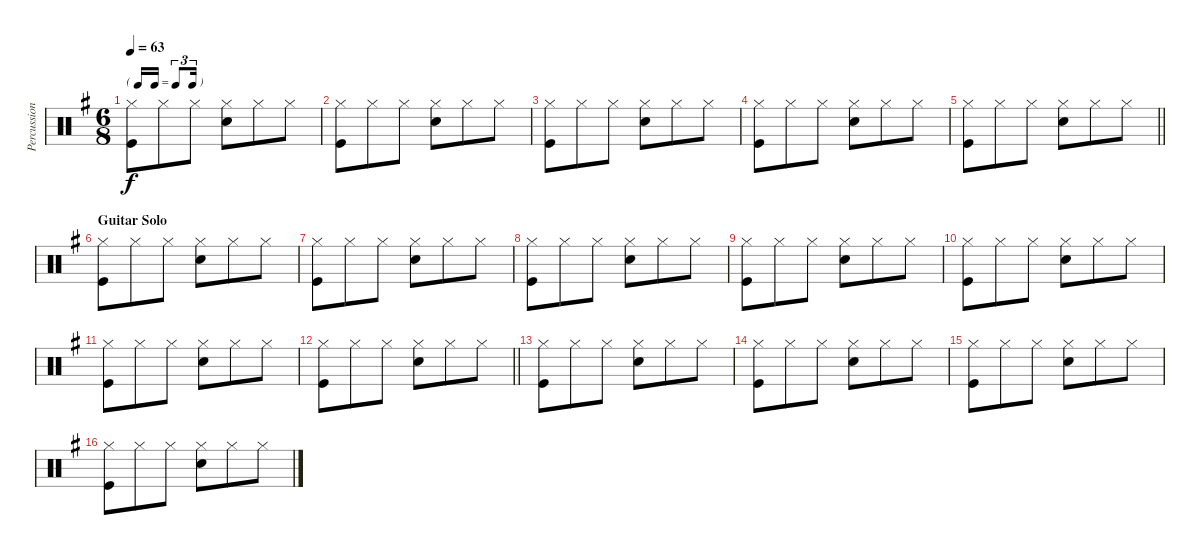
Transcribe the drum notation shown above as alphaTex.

\track ("Percussion" "Percussion") {instrument percussion}
\staff {score}
\articulation defaults
\ts (6 8)
\tf triplet16th
\tempo 63
\clef neutral
\ks g
("Hi-Hat (closed)" "Kick (hit)").8{dy f} "Hi-Hat (closed)".8 "Hi-Hat (closed)".8 ("Hi-Hat (closed)" "Electric Snare (hit)").8 "Hi-Hat (closed)".8 "Hi-Hat (closed)".8 |
("Hi-Hat (closed)" "Kick (hit)").8 "Hi-Hat (closed)".8 "Hi-Hat (closed)".8 ("Hi-Hat (closed)" "Electric Snare (hit)").8 "Hi-Hat (closed)".8 "Hi-Hat (closed)".8 |
("Hi-Hat (closed)" "Kick (hit)").8 "Hi-Hat (closed)".8 "Hi-Hat (closed)".8 ("Hi-Hat (closed)" "Electric Snare (hit)").8 "Hi-Hat (closed)".8 "Hi-Hat (closed)".8 |
("Hi-Hat (closed)" "Kick (hit)").8 "Hi-Hat (closed)".8 "Hi-Hat (closed)".8 ("Hi-Hat (closed)" "Electric Snare (hit)").8 "Hi-Hat (closed)".8 "Hi-Hat (closed)".8 |
\barLineRight lightlight
("Hi-Hat (closed)" "Kick (hit)").8 "Hi-Hat (closed)".8 "Hi-Hat (closed)".8 ("Hi-Hat (closed)" "Electric Snare (hit)").8 "Hi-Hat (closed)".8 "Hi-Hat (closed)".8 |
\section ("" "Guitar Solo")
("Hi-Hat (closed)" "Kick (hit)").8 "Hi-Hat (closed)".8 "Hi-Hat (closed)".8 ("Hi-Hat (closed)" "Electric Snare (hit)").8 "Hi-Hat (closed)".8 "Hi-Hat (closed)".8 |
("Hi-Hat (closed)" "Kick (hit)").8 "Hi-Hat (closed)".8 "Hi-Hat (closed)".8 ("Hi-Hat (closed)" "Electric Snare (hit)").8 "Hi-Hat (closed)".8 "Hi-Hat (closed)".8 |
("Hi-Hat (closed)" "Kick (hit)").8 "Hi-Hat (closed)".8 "Hi-Hat (closed)".8 ("Hi-Hat (closed)" "Electric Snare (hit)").8 "Hi-Hat (closed)".8 "Hi-Hat (closed)".8 |
("Hi-Hat (closed)" "Kick (hit)").8 "Hi-Hat (closed)".8 "Hi-Hat (closed)".8 ("Hi-Hat (closed)" "Electric Snare (hit)").8 "Hi-Hat (closed)".8 "Hi-Hat (closed)".8 |
("Hi-Hat (closed)" "Kick (hit)").8 "Hi-Hat (closed)".8 "Hi-Hat (closed)".8 ("Hi-Hat (closed)" "Electric Snare (hit)").8 "Hi-Hat (closed)".8 "Hi-Hat (closed)".8 |
("Hi-Hat (closed)" "Kick (hit)").8 "Hi-Hat (closed)".8 "Hi-Hat (closed)".8 ("Hi-Hat (closed)" "Electric Snare (hit)").8 "Hi-Hat (closed)".8 "Hi-Hat (closed)".8 |
\barLineRight lightlight
("Hi-Hat (closed)" "Kick (hit)").8 "Hi-Hat (closed)".8 "Hi-Hat (closed)".8 ("Hi-Hat (closed)" "Electric Snare (hit)").8 "Hi-Hat (closed)".8 "Hi-Hat (closed)".8 |
("Hi-Hat (closed)" "Kick (hit)").8 "Hi-Hat (closed)".8 "Hi-Hat (closed)".8 ("Hi-Hat (closed)" "Electric Snare (hit)").8 "Hi-Hat (closed)".8 "Hi-Hat (closed)".8 |
("Hi-Hat (closed)" "Kick (hit)").8 "Hi-Hat (closed)".8 "Hi-Hat (closed)".8 ("Hi-Hat (closed)" "Electric Snare (hit)").8 "Hi-Hat (closed)".8 "Hi-Hat (closed)".8 |
("Hi-Hat (closed)" "Kick (hit)").8 "Hi-Hat (closed)".8 "Hi-Hat (closed)".8 ("Hi-Hat (closed)" "Electric Snare (hit)").8 "Hi-Hat (closed)".8 "Hi-Hat (closed)".8 |
("Hi-Hat (closed)" "Kick (hit)").8 "Hi-Hat (closed)".8 "Hi-Hat (closed)".8 ("Hi-Hat (closed)" "Electric Snare (hit)").8 "Hi-Hat (closed)".8 "Hi-Hat (closed)".8
